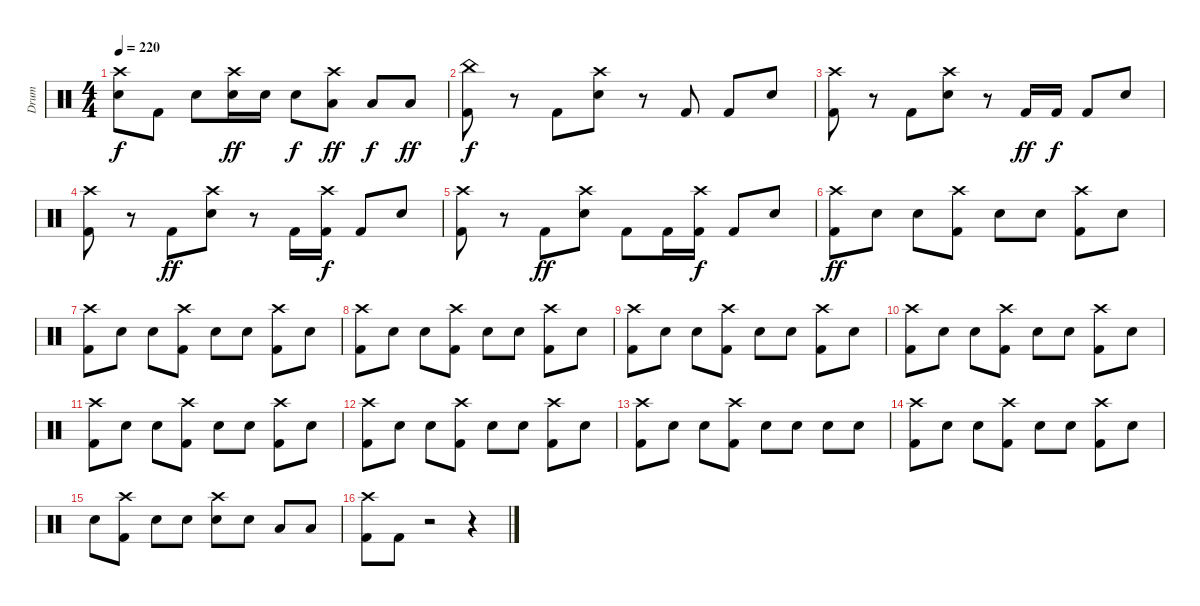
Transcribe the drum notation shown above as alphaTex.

\track ("Drum" "Drum") {instrument percussion}
\staff {score}
\articulation defaults
\ts (4 4)
\tempo 220
\clef neutral
\ks c
("Crash high (hit)" "Snare (hit) 2").8{dy f} "Kick (hit) 2".8 "Snare (hit) 2".8 ("Crash high (hit)" "Snare (hit) 2").16{dy ff} "Snare (hit) 2".16 "Snare (hit) 2".8{dy f} ("Crash high (hit)" "Low Tom (hit)").8{dy ff} "Low Tom (hit)".8{dy f} "Low Tom (hit)".8{dy ff} |
("China (hit)" "Kick (hit) 2").8{dy f} r.8 "Kick (hit) 2".8 ("Crash high (hit)" "Snare (hit) 2").8 r.8 "Kick (hit) 2".8 "Kick (hit) 2".8 "Snare (hit) 2".8 |
("Crash high (hit)" "Kick (hit) 2").8 r.8 "Kick (hit) 2".8 ("Crash high (hit)" "Snare (hit) 2").8 r.8 "Kick (hit) 2".16{dy ff} "Kick (hit) 2".16{dy f} "Kick (hit) 2".8 "Snare (hit) 2".8 |
("Crash high (hit)" "Kick (hit) 2").8 r.8 "Kick (hit) 2".8{dy ff} ("Crash high (hit)" "Snare (hit) 2").8 r.8 "Kick (hit) 2".16 ("Crash high (hit)" "Kick (hit) 2").16{dy f} "Kick (hit) 2".8 "Snare (hit) 2".8 |
("Crash high (hit)" "Kick (hit) 2").8 r.8 "Kick (hit) 2".8{dy ff} ("Crash high (hit)" "Snare (hit) 2").8 "Kick (hit) 2".8 "Kick (hit) 2".16 ("Crash high (hit)" "Kick (hit) 2").16{dy f} "Kick (hit) 2".8 "Snare (hit) 2".8 |
("Crash high (hit)" "Kick (hit) 2").8{dy ff} "Snare (hit) 2".8 "Snare (hit) 2".8 ("Crash high (hit)" "Kick (hit) 2").8 "Snare (hit) 2".8 "Snare (hit) 2".8 ("Crash high (hit)" "Kick (hit) 2").8 "Snare (hit) 2".8 |
("Crash high (hit)" "Kick (hit) 2").8 "Snare (hit) 2".8 "Snare (hit) 2".8 ("Crash high (hit)" "Kick (hit) 2").8 "Snare (hit) 2".8 "Snare (hit) 2".8 ("Crash high (hit)" "Kick (hit) 2").8 "Snare (hit) 2".8 |
("Crash high (hit)" "Kick (hit) 2").8 "Snare (hit) 2".8 "Snare (hit) 2".8 ("Crash high (hit)" "Kick (hit) 2").8 "Snare (hit) 2".8 "Snare (hit) 2".8 ("Crash high (hit)" "Kick (hit) 2").8 "Snare (hit) 2".8 |
("Crash high (hit)" "Kick (hit) 2").8 "Snare (hit) 2".8 "Snare (hit) 2".8 ("Crash high (hit)" "Kick (hit) 2").8 "Snare (hit) 2".8 "Snare (hit) 2".8 ("Crash high (hit)" "Kick (hit) 2").8 "Snare (hit) 2".8 |
("Crash high (hit)" "Kick (hit) 2").8 "Snare (hit) 2".8 "Snare (hit) 2".8 ("Crash high (hit)" "Kick (hit) 2").8 "Snare (hit) 2".8 "Snare (hit) 2".8 ("Crash high (hit)" "Kick (hit) 2").8 "Snare (hit) 2".8 |
("Crash high (hit)" "Kick (hit) 2").8 "Snare (hit) 2".8 "Snare (hit) 2".8 ("Crash high (hit)" "Kick (hit) 2").8 "Snare (hit) 2".8 "Snare (hit) 2".8 ("Crash high (hit)" "Kick (hit) 2").8 "Snare (hit) 2".8 |
("Crash high (hit)" "Kick (hit) 2").8 "Snare (hit) 2".8 "Snare (hit) 2".8 ("Crash high (hit)" "Kick (hit) 2").8 "Snare (hit) 2".8 "Snare (hit) 2".8 ("Crash high (hit)" "Kick (hit) 2").8 "Snare (hit) 2".8 |
("Crash high (hit)" "Kick (hit) 2").8 "Snare (hit) 2".8 "Snare (hit) 2".8 ("Crash high (hit)" "Kick (hit) 2").8 "Snare (hit) 2".8 "Snare (hit) 2".8 "Snare (hit) 2".8 "Snare (hit) 2".8 |
("Crash high (hit)" "Kick (hit) 2").8 "Snare (hit) 2".8 "Snare (hit) 2".8 ("Crash high (hit)" "Kick (hit) 2").8 "Snare (hit) 2".8 "Snare (hit) 2".8 ("Crash high (hit)" "Kick (hit) 2").8 "Snare (hit) 2".8 |
"Snare (hit) 2".8 ("Crash high (hit)" "Kick (hit) 2").8 "Snare (hit) 2".8 "Snare (hit) 2".8 ("Crash high (hit)" "Snare (hit) 2").8 "Snare (hit) 2".8 "Low Tom (hit)".8 "Low Tom (hit)".8 |
("Crash high (hit)" "Kick (hit) 2").8 "Kick (hit) 2".8 r.2 r.4
